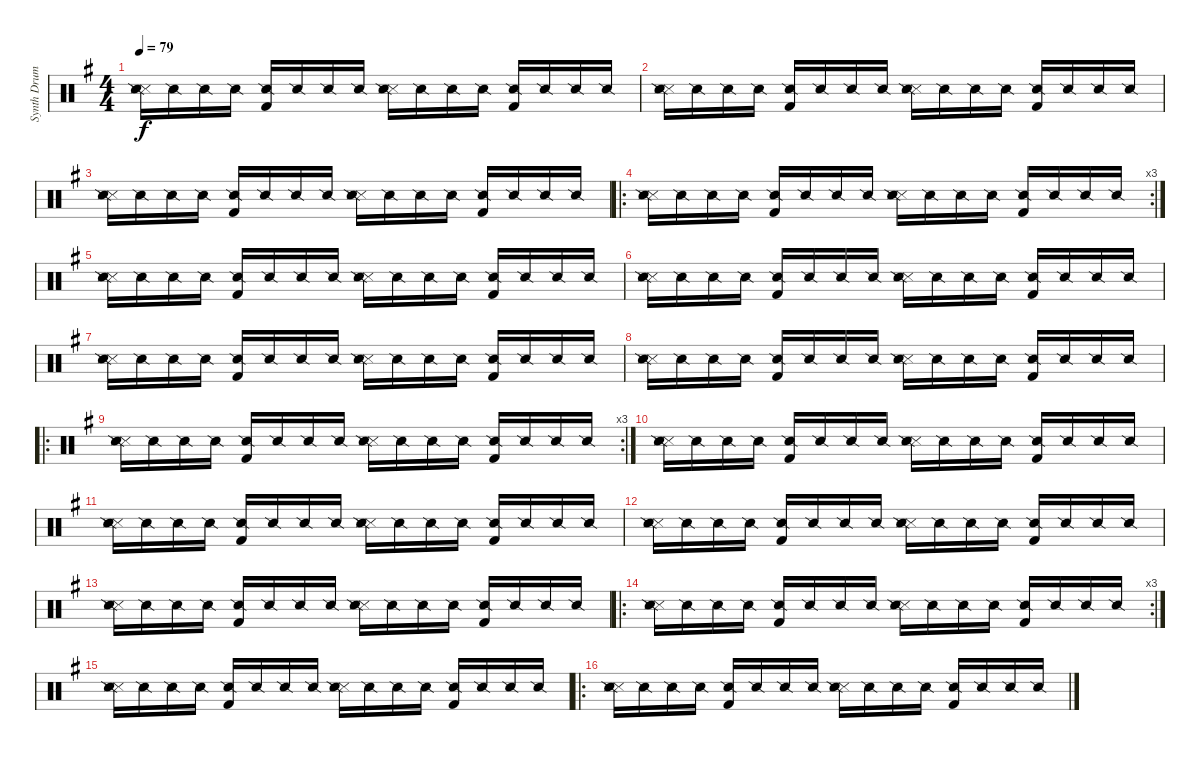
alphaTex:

\track ("Synth Drums" "Synth Drum") {instrument percussion}
\staff {score}
\articulation defaults
\ts (4 4)
\tempo 79
\clef neutral
\ks g
("Metronome (hit)" "Snare (side stick) 2" "Snare (side stick) 3").16{dy f} "Snare (side stick) 2".16 "Snare (side stick) 2".16 "Snare (side stick) 2".16 ("Kick (hit) 2" "Snare (side stick) 2").16 "Snare (side stick) 2".16 "Snare (side stick) 2".16 "Snare (side stick) 2".16 ("Metronome (hit)" "Snare (side stick) 2" "Snare (side stick) 3").16 "Snare (side stick) 2".16 "Snare (side stick) 2".16 "Snare (side stick) 2".16 ("Kick (hit) 2" "Snare (side stick) 2").16 "Snare (side stick) 2".16 "Snare (side stick) 2".16 "Snare (side stick) 2".16 |
("Metronome (hit)" "Snare (side stick) 2" "Snare (side stick) 3").16 "Snare (side stick) 2".16 "Snare (side stick) 2".16 "Snare (side stick) 2".16 ("Kick (hit) 2" "Snare (side stick) 2").16 "Snare (side stick) 2".16 "Snare (side stick) 2".16 "Snare (side stick) 2".16 ("Metronome (hit)" "Snare (side stick) 2" "Snare (side stick) 3").16 "Snare (side stick) 2".16 "Snare (side stick) 2".16 "Snare (side stick) 2".16 ("Kick (hit) 2" "Snare (side stick) 2").16 "Snare (side stick) 2".16 "Snare (side stick) 2".16 "Snare (side stick) 2".16 |
("Metronome (hit)" "Snare (side stick) 2" "Snare (side stick) 3").16 "Snare (side stick) 2".16 "Snare (side stick) 2".16 "Snare (side stick) 2".16 ("Kick (hit) 2" "Snare (side stick) 2").16 "Snare (side stick) 2".16 "Snare (side stick) 2".16 "Snare (side stick) 2".16 ("Metronome (hit)" "Snare (side stick) 2" "Snare (side stick) 3").16 "Snare (side stick) 2".16 "Snare (side stick) 2".16 "Snare (side stick) 2".16 ("Kick (hit) 2" "Snare (side stick) 2").16 "Snare (side stick) 2".16 "Snare (side stick) 2".16 "Snare (side stick) 2".16 |
\ro
\rc 3
("Metronome (hit)" "Snare (side stick) 2" "Snare (side stick) 3").16 "Snare (side stick) 2".16 "Snare (side stick) 2".16 "Snare (side stick) 2".16 ("Kick (hit) 2" "Snare (side stick) 2").16 "Snare (side stick) 2".16 "Snare (side stick) 2".16 "Snare (side stick) 2".16 ("Metronome (hit)" "Snare (side stick) 2" "Snare (side stick) 3").16 "Snare (side stick) 2".16 "Snare (side stick) 2".16 "Snare (side stick) 2".16 ("Kick (hit) 2" "Snare (side stick) 2").16 "Snare (side stick) 2".16 "Snare (side stick) 2".16 "Snare (side stick) 2".16 |
("Metronome (hit)" "Snare (side stick) 2" "Snare (side stick) 3").16 "Snare (side stick) 2".16 "Snare (side stick) 2".16 "Snare (side stick) 2".16 ("Kick (hit) 2" "Snare (side stick) 2").16 "Snare (side stick) 2".16 "Snare (side stick) 2".16 "Snare (side stick) 2".16 ("Metronome (hit)" "Snare (side stick) 2" "Snare (side stick) 3").16 "Snare (side stick) 2".16 "Snare (side stick) 2".16 "Snare (side stick) 2".16 ("Kick (hit) 2" "Snare (side stick) 2").16 "Snare (side stick) 2".16 "Snare (side stick) 2".16 "Snare (side stick) 2".16 |
("Metronome (hit)" "Snare (side stick) 2" "Snare (side stick) 3").16 "Snare (side stick) 2".16 "Snare (side stick) 2".16 "Snare (side stick) 2".16 ("Kick (hit) 2" "Snare (side stick) 2").16 "Snare (side stick) 2".16 "Snare (side stick) 2".16 "Snare (side stick) 2".16 ("Metronome (hit)" "Snare (side stick) 2" "Snare (side stick) 3").16 "Snare (side stick) 2".16 "Snare (side stick) 2".16 "Snare (side stick) 2".16 ("Kick (hit) 2" "Snare (side stick) 2").16 "Snare (side stick) 2".16 "Snare (side stick) 2".16 "Snare (side stick) 2".16 |
("Metronome (hit)" "Snare (side stick) 2" "Snare (side stick) 3").16 "Snare (side stick) 2".16 "Snare (side stick) 2".16 "Snare (side stick) 2".16 ("Kick (hit) 2" "Snare (side stick) 2").16 "Snare (side stick) 2".16 "Snare (side stick) 2".16 "Snare (side stick) 2".16 ("Metronome (hit)" "Snare (side stick) 2" "Snare (side stick) 3").16 "Snare (side stick) 2".16 "Snare (side stick) 2".16 "Snare (side stick) 2".16 ("Kick (hit) 2" "Snare (side stick) 2").16 "Snare (side stick) 2".16 "Snare (side stick) 2".16 "Snare (side stick) 2".16 |
("Metronome (hit)" "Snare (side stick) 2" "Snare (side stick) 3").16 "Snare (side stick) 2".16 "Snare (side stick) 2".16 "Snare (side stick) 2".16 ("Kick (hit) 2" "Snare (side stick) 2").16 "Snare (side stick) 2".16 "Snare (side stick) 2".16 "Snare (side stick) 2".16 ("Metronome (hit)" "Snare (side stick) 2" "Snare (side stick) 3").16 "Snare (side stick) 2".16 "Snare (side stick) 2".16 "Snare (side stick) 2".16 ("Kick (hit) 2" "Snare (side stick) 2").16 "Snare (side stick) 2".16 "Snare (side stick) 2".16 "Snare (side stick) 2".16 |
\ro
\rc 3
("Metronome (hit)" "Snare (side stick) 2" "Snare (side stick) 3").16 "Snare (side stick) 2".16 "Snare (side stick) 2".16 "Snare (side stick) 2".16 ("Kick (hit) 2" "Snare (side stick) 2").16 "Snare (side stick) 2".16 "Snare (side stick) 2".16 "Snare (side stick) 2".16 ("Metronome (hit)" "Snare (side stick) 2" "Snare (side stick) 3").16 "Snare (side stick) 2".16 "Snare (side stick) 2".16 "Snare (side stick) 2".16 ("Kick (hit) 2" "Snare (side stick) 2").16 "Snare (side stick) 2".16 "Snare (side stick) 2".16 "Snare (side stick) 2".16 |
("Metronome (hit)" "Snare (side stick) 2" "Snare (side stick) 3").16 "Snare (side stick) 2".16 "Snare (side stick) 2".16 "Snare (side stick) 2".16 ("Kick (hit) 2" "Snare (side stick) 2").16 "Snare (side stick) 2".16 "Snare (side stick) 2".16 "Snare (side stick) 2".16 ("Metronome (hit)" "Snare (side stick) 2" "Snare (side stick) 3").16 "Snare (side stick) 2".16 "Snare (side stick) 2".16 "Snare (side stick) 2".16 ("Kick (hit) 2" "Snare (side stick) 2").16 "Snare (side stick) 2".16 "Snare (side stick) 2".16 "Snare (side stick) 2".16 |
("Metronome (hit)" "Snare (side stick) 2" "Snare (side stick) 3").16 "Snare (side stick) 2".16 "Snare (side stick) 2".16 "Snare (side stick) 2".16 ("Kick (hit) 2" "Snare (side stick) 2").16 "Snare (side stick) 2".16 "Snare (side stick) 2".16 "Snare (side stick) 2".16 ("Metronome (hit)" "Snare (side stick) 2" "Snare (side stick) 3").16 "Snare (side stick) 2".16 "Snare (side stick) 2".16 "Snare (side stick) 2".16 ("Kick (hit) 2" "Snare (side stick) 2").16 "Snare (side stick) 2".16 "Snare (side stick) 2".16 "Snare (side stick) 2".16 |
("Metronome (hit)" "Snare (side stick) 2" "Snare (side stick) 3").16 "Snare (side stick) 2".16 "Snare (side stick) 2".16 "Snare (side stick) 2".16 ("Kick (hit) 2" "Snare (side stick) 2").16 "Snare (side stick) 2".16 "Snare (side stick) 2".16 "Snare (side stick) 2".16 ("Metronome (hit)" "Snare (side stick) 2" "Snare (side stick) 3").16 "Snare (side stick) 2".16 "Snare (side stick) 2".16 "Snare (side stick) 2".16 ("Kick (hit) 2" "Snare (side stick) 2").16 "Snare (side stick) 2".16 "Snare (side stick) 2".16 "Snare (side stick) 2".16 |
("Metronome (hit)" "Snare (side stick) 2" "Snare (side stick) 3").16 "Snare (side stick) 2".16 "Snare (side stick) 2".16 "Snare (side stick) 2".16 ("Kick (hit) 2" "Snare (side stick) 2").16 "Snare (side stick) 2".16 "Snare (side stick) 2".16 "Snare (side stick) 2".16 ("Metronome (hit)" "Snare (side stick) 2" "Snare (side stick) 3").16 "Snare (side stick) 2".16 "Snare (side stick) 2".16 "Snare (side stick) 2".16 ("Kick (hit) 2" "Snare (side stick) 2").16 "Snare (side stick) 2".16 "Snare (side stick) 2".16 "Snare (side stick) 2".16 |
\ro
\rc 3
("Metronome (hit)" "Snare (side stick) 2" "Snare (side stick) 3").16 "Snare (side stick) 2".16 "Snare (side stick) 2".16 "Snare (side stick) 2".16 ("Kick (hit) 2" "Snare (side stick) 2").16 "Snare (side stick) 2".16 "Snare (side stick) 2".16 "Snare (side stick) 2".16 ("Metronome (hit)" "Snare (side stick) 2" "Snare (side stick) 3").16 "Snare (side stick) 2".16 "Snare (side stick) 2".16 "Snare (side stick) 2".16 ("Kick (hit) 2" "Snare (side stick) 2").16 "Snare (side stick) 2".16 "Snare (side stick) 2".16 "Snare (side stick) 2".16 |
("Metronome (hit)" "Snare (side stick) 2" "Snare (side stick) 3").16 "Snare (side stick) 2".16 "Snare (side stick) 2".16 "Snare (side stick) 2".16 ("Kick (hit) 2" "Snare (side stick) 2").16 "Snare (side stick) 2".16 "Snare (side stick) 2".16 "Snare (side stick) 2".16 ("Metronome (hit)" "Snare (side stick) 2" "Snare (side stick) 3").16 "Snare (side stick) 2".16 "Snare (side stick) 2".16 "Snare (side stick) 2".16 ("Kick (hit) 2" "Snare (side stick) 2").16 "Snare (side stick) 2".16 "Snare (side stick) 2".16 "Snare (side stick) 2".16 |
\ro
("Metronome (hit)" "Snare (side stick) 2" "Snare (side stick) 3").16 "Snare (side stick) 2".16 "Snare (side stick) 2".16 "Snare (side stick) 2".16 ("Kick (hit) 2" "Snare (side stick) 2").16 "Snare (side stick) 2".16 "Snare (side stick) 2".16 "Snare (side stick) 2".16 ("Metronome (hit)" "Snare (side stick) 2" "Snare (side stick) 3").16 "Snare (side stick) 2".16 "Snare (side stick) 2".16 "Snare (side stick) 2".16 ("Kick (hit) 2" "Snare (side stick) 2").16 "Snare (side stick) 2".16 "Snare (side stick) 2".16 "Snare (side stick) 2".16
